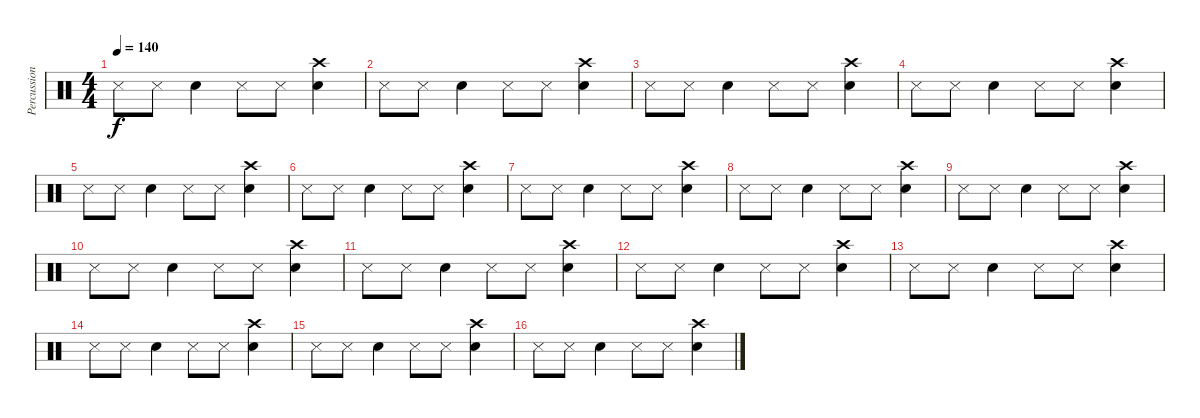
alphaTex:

\track ("Percussion" "Percussion") {instrument percussion}
\staff {score}
\articulation defaults
\ts (4 4)
\tempo 140
\clef neutral
\ks c "Snare (side stick) 3".8{dy f} "Snare (side stick) 3".8 "Snare (hit) 2".4 "Snare (side stick) 3".8 "Snare (side stick) 3".8
("Crash high (hit)" "Snare (hit) 2").4 |
"Snare (side stick) 3".8 "Snare (side stick) 3".8 "Snare (hit) 2".4 "Snare (side stick) 3".8 "Snare (side stick) 3".8 ("Crash high (hit)" "Snare (hit) 2").4 |
"Snare (side stick) 3".8 "Snare (side stick) 3".8 "Snare (hit) 2".4 "Snare (side stick) 3".8 "Snare (side stick) 3".8 ("Crash high (hit)" "Snare (hit) 2").4 |
"Snare (side stick) 3".8 "Snare (side stick) 3".8 "Snare (hit) 2".4 "Snare (side stick) 3".8 "Snare (side stick) 3".8 ("Crash high (hit)" "Snare (hit) 2").4 |
"Snare (side stick) 3".8 "Snare (side stick) 3".8 "Snare (hit) 2".4 "Snare (side stick) 3".8 "Snare (side stick) 3".8 ("Crash high (hit)" "Snare (hit) 2").4 |
"Snare (side stick) 3".8 "Snare (side stick) 3".8 "Snare (hit) 2".4 "Snare (side stick) 3".8 "Snare (side stick) 3".8 ("Crash high (hit)" "Snare (hit) 2").4 |
"Snare (side stick) 3".8 "Snare (side stick) 3".8 "Snare (hit) 2".4 "Snare (side stick) 3".8 "Snare (side stick) 3".8 ("Crash high (hit)" "Snare (hit) 2").4 |
"Snare (side stick) 3".8 "Snare (side stick) 3".8 "Snare (hit) 2".4 "Snare (side stick) 3".8 "Snare (side stick) 3".8 ("Crash high (hit)" "Snare (hit) 2").4 |
"Snare (side stick) 3".8 "Snare (side stick) 3".8 "Snare (hit) 2".4 "Snare (side stick) 3".8 "Snare (side stick) 3".8 ("Crash high (hit)" "Snare (hit) 2").4 |
"Snare (side stick) 3".8 "Snare (side stick) 3".8 "Snare (hit) 2".4 "Snare (side stick) 3".8 "Snare (side stick) 3".8 ("Crash high (hit)" "Snare (hit) 2").4 |
"Snare (side stick) 3".8 "Snare (side stick) 3".8 "Snare (hit) 2".4 "Snare (side stick) 3".8 "Snare (side stick) 3".8 ("Crash high (hit)" "Snare (hit) 2").4 |
"Snare (side stick) 3".8 "Snare (side stick) 3".8 "Snare (hit) 2".4 "Snare (side stick) 3".8 "Snare (side stick) 3".8 ("Crash high (hit)" "Snare (hit) 2").4 |
"Snare (side stick) 3".8 "Snare (side stick) 3".8 "Snare (hit) 2".4 "Snare (side stick) 3".8 "Snare (side stick) 3".8 ("Crash high (hit)" "Snare (hit) 2").4 |
"Snare (side stick) 3".8 "Snare (side stick) 3".8 "Snare (hit) 2".4 "Snare (side stick) 3".8 "Snare (side stick) 3".8 ("Crash high (hit)" "Snare (hit) 2").4 |
"Snare (side stick) 3".8 "Snare (side stick) 3".8 "Snare (hit) 2".4 "Snare (side stick) 3".8 "Snare (side stick) 3".8 ("Crash high (hit)" "Snare (hit) 2").4 |
"Snare (side stick) 3".8 "Snare (side stick) 3".8 "Snare (hit) 2".4 "Snare (side stick) 3".8 "Snare (side stick) 3".8 ("Crash high (hit)" "Snare (hit) 2").4
